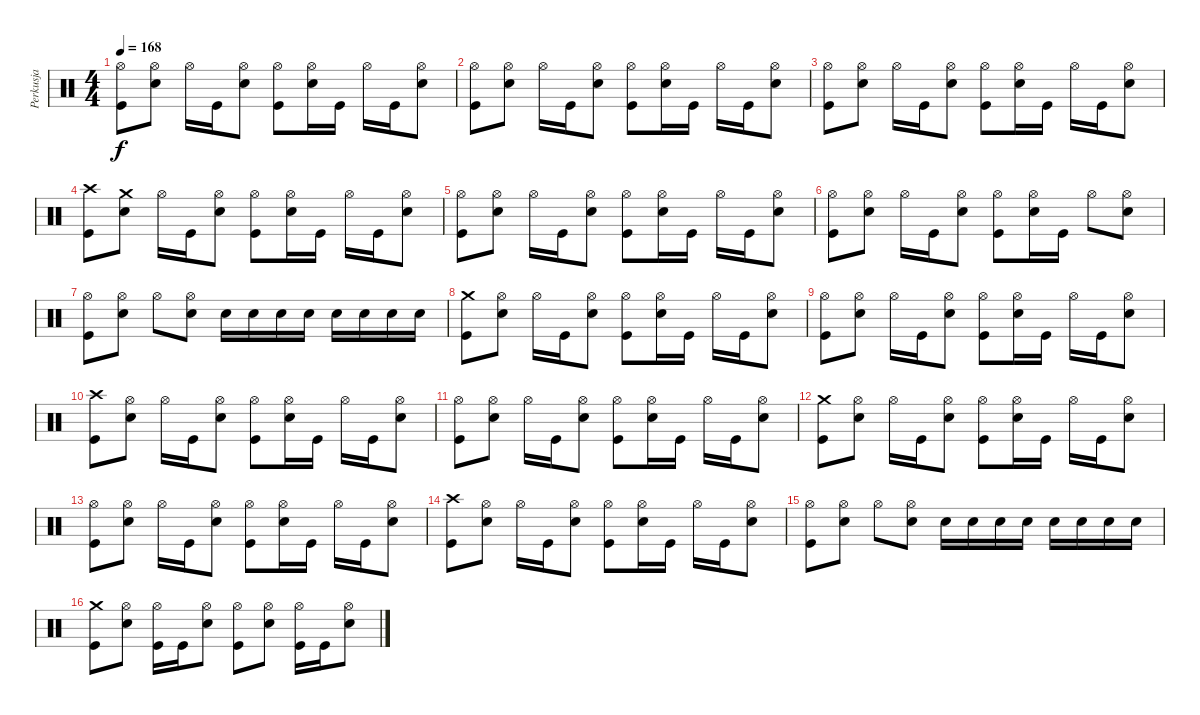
\track ("Perkusja" "Perkusja") {instrument percussion}
\staff {score}
\articulation defaults
\ts (4 4)
\tempo 168
\clef neutral
\ks c
("Kick (hit)" "Hi-Hat (open)").8{dy f} ("Hi-Hat (open)" "Snare (hit) 2").8 "Hi-Hat (open)".16 "Kick (hit)".16 ("Hi-Hat (open)" "Snare (hit) 2").8 ("Kick (hit)" "Hi-Hat (open)").8 ("Hi-Hat (open)" "Snare (hit) 2").16 "Kick (hit)".16 "Hi-Hat (open)".16 "Kick (hit)".16 ("Hi-Hat (open)" "Snare (hit) 2").8 |
("Kick (hit)" "Hi-Hat (open)").8 ("Hi-Hat (open)" "Snare (hit) 2").8 "Hi-Hat (open)".16 "Kick (hit)".16 ("Hi-Hat (open)" "Snare (hit) 2").8 ("Kick (hit)" "Hi-Hat (open)").8 ("Hi-Hat (open)" "Snare (hit) 2").16 "Kick (hit)".16 "Hi-Hat (open)".16 "Kick (hit)".16 ("Hi-Hat (open)" "Snare (hit) 2").8 |
("Kick (hit)" "Hi-Hat (open)").8 ("Hi-Hat (open)" "Snare (hit) 2").8 "Hi-Hat (open)".16 "Kick (hit)".16 ("Hi-Hat (open)" "Snare (hit) 2").8 ("Kick (hit)" "Hi-Hat (open)").8 ("Hi-Hat (open)" "Snare (hit) 2").16 "Kick (hit)".16 "Hi-Hat (open)".16 "Kick (hit)".16 ("Hi-Hat (open)" "Snare (hit) 2").8 |
("Kick (hit)" "Crash high (hit)").8 ("Crash medium (hit)" "Snare (hit) 2").8 "Hi-Hat (open)".16 "Kick (hit)".16 ("Hi-Hat (open)" "Snare (hit) 2").8 ("Kick (hit)" "Hi-Hat (open)").8 ("Hi-Hat (open)" "Snare (hit) 2").16 "Kick (hit)".16 "Hi-Hat (open)".16 "Kick (hit)".16 ("Hi-Hat (open)" "Snare (hit) 2").8 |
("Kick (hit)" "Hi-Hat (open)").8 ("Hi-Hat (open)" "Snare (hit) 2").8 "Hi-Hat (open)".16 "Kick (hit)".16 ("Hi-Hat (open)" "Snare (hit) 2").8 ("Kick (hit)" "Hi-Hat (open)").8 ("Hi-Hat (open)" "Snare (hit) 2").16 "Kick (hit)".16 "Hi-Hat (open)".16 "Kick (hit)".16 ("Hi-Hat (open)" "Snare (hit) 2").8 |
("Kick (hit)" "Hi-Hat (open)").8 ("Hi-Hat (open)" "Snare (hit) 2").8 "Hi-Hat (open)".16 "Kick (hit)".16 ("Hi-Hat (open)" "Snare (hit) 2").8 ("Kick (hit)" "Hi-Hat (open)").8 ("Hi-Hat (open)" "Snare (hit) 2").16 "Kick (hit)".16 "Hi-Hat (open)".8 ("Hi-Hat (open)" "Snare (hit) 2").8 |
("Kick (hit)" "Hi-Hat (open)").8 ("Hi-Hat (open)" "Snare (hit) 2").8 "Hi-Hat (open)".8 ("Hi-Hat (open)" "Snare (hit) 2").8 "Snare (hit) 2".16 "Snare (hit) 2".16 "Snare (hit) 2".16 "Snare (hit) 2".16 "Snare (hit) 2".16 "Snare (hit) 2".16 "Snare (hit) 2".16 "Snare (hit) 2".16 |
("Kick (hit)" "Crash medium (hit)").8 ("Hi-Hat (open)" "Snare (hit) 2").8 "Hi-Hat (open)".16 "Kick (hit)".16 ("Hi-Hat (open)" "Snare (hit) 2").8 ("Kick (hit)" "Hi-Hat (open)").8 ("Hi-Hat (open)" "Snare (hit) 2").16 "Kick (hit)".16 "Hi-Hat (open)".16 "Kick (hit)".16 ("Hi-Hat (open)" "Snare (hit) 2").8 |
("Kick (hit)" "Hi-Hat (open)").8 ("Hi-Hat (open)" "Snare (hit) 2").8 "Hi-Hat (open)".16 "Kick (hit)".16 ("Hi-Hat (open)" "Snare (hit) 2").8 ("Kick (hit)" "Hi-Hat (open)").8 ("Hi-Hat (open)" "Snare (hit) 2").16 "Kick (hit)".16 "Hi-Hat (open)".16 "Kick (hit)".16 ("Hi-Hat (open)" "Snare (hit) 2").8 |
("Kick (hit)" "Crash high (hit)").8 ("Hi-Hat (open)" "Snare (hit) 2").8 "Hi-Hat (open)".16 "Kick (hit)".16 ("Hi-Hat (open)" "Snare (hit) 2").8 ("Kick (hit)" "Hi-Hat (open)").8 ("Hi-Hat (open)" "Snare (hit) 2").16 "Kick (hit)".16 "Hi-Hat (open)".16 "Kick (hit)".16 ("Hi-Hat (open)" "Snare (hit) 2").8 |
("Kick (hit)" "Hi-Hat (open)").8 ("Hi-Hat (open)" "Snare (hit) 2").8 "Hi-Hat (open)".16 "Kick (hit)".16 ("Hi-Hat (open)" "Snare (hit) 2").8 ("Kick (hit)" "Hi-Hat (open)").8 ("Hi-Hat (open)" "Snare (hit) 2").16 "Kick (hit)".16 "Hi-Hat (open)".16 "Kick (hit)".16 ("Hi-Hat (open)" "Snare (hit) 2").8 |
("Kick (hit)" "Crash medium (hit)").8 ("Hi-Hat (open)" "Snare (hit) 2").8 "Hi-Hat (open)".16 "Kick (hit)".16 ("Hi-Hat (open)" "Snare (hit) 2").8 ("Kick (hit)" "Hi-Hat (open)").8 ("Hi-Hat (open)" "Snare (hit) 2").16 "Kick (hit)".16 "Hi-Hat (open)".16 "Kick (hit)".16 ("Hi-Hat (open)" "Snare (hit) 2").8 |
("Kick (hit)" "Hi-Hat (open)").8 ("Hi-Hat (open)" "Snare (hit) 2").8 "Hi-Hat (open)".16 "Kick (hit)".16 ("Hi-Hat (open)" "Snare (hit) 2").8 ("Kick (hit)" "Hi-Hat (open)").8 ("Hi-Hat (open)" "Snare (hit) 2").16 "Kick (hit)".16 "Hi-Hat (open)".16 "Kick (hit)".16 ("Hi-Hat (open)" "Snare (hit) 2").8 |
("Kick (hit)" "Crash high (hit)").8 ("Hi-Hat (open)" "Snare (hit) 2").8 "Hi-Hat (open)".16 "Kick (hit)".16 ("Hi-Hat (open)" "Snare (hit) 2").8 ("Kick (hit)" "Hi-Hat (open)").8 ("Hi-Hat (open)" "Snare (hit) 2").16 "Kick (hit)".16 "Hi-Hat (open)".16 "Kick (hit)".16 ("Hi-Hat (open)" "Snare (hit) 2").8 |
("Kick (hit)" "Hi-Hat (open)").8 ("Hi-Hat (open)" "Snare (hit) 2").8 "Hi-Hat (open)".8 ("Hi-Hat (open)" "Snare (hit) 2").8 "Snare (hit) 2".16 "Snare (hit) 2".16 "Snare (hit) 2".16 "Snare (hit) 2".16 "Snare (hit) 2".16 "Snare (hit) 2".16 "Snare (hit) 2".16 "Snare (hit) 2".16 |
("Kick (hit)" "Crash medium (hit)").8 ("Hi-Hat (open)" "Snare (hit) 2").8 ("Kick (hit)" "Hi-Hat (open)").16 "Kick (hit)".16 ("Hi-Hat (open)" "Snare (hit) 2").8 ("Kick (hit)" "Hi-Hat (open)").8 ("Hi-Hat (open)" "Snare (hit) 2").8 ("Kick (hit)" "Hi-Hat (open)").16 "Kick (hit)".16 ("Hi-Hat (open)" "Snare (hit) 2").8
